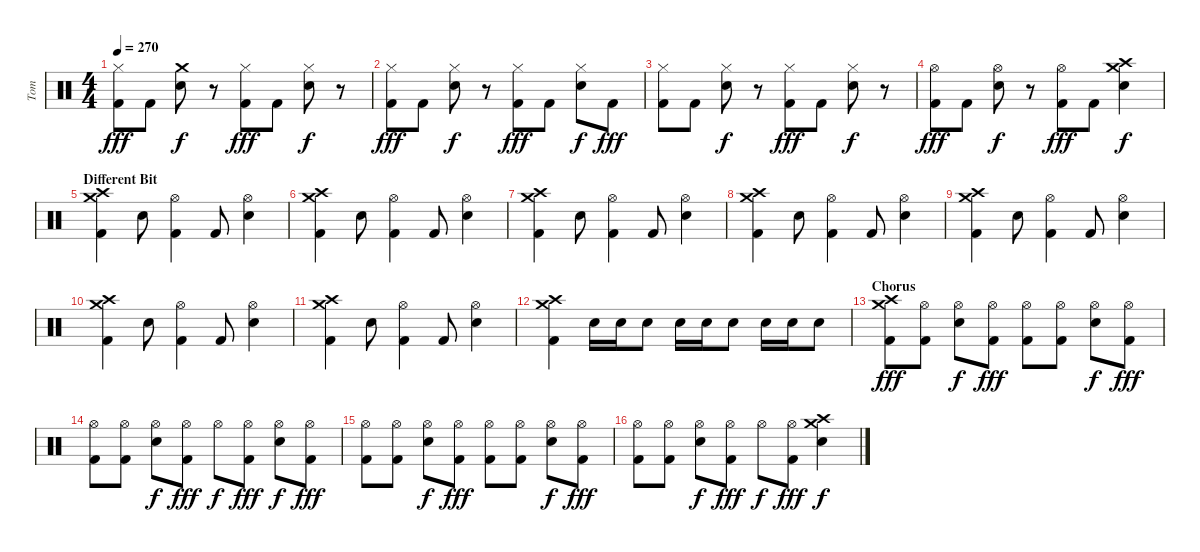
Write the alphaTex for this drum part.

\track ("Tom" "Tom") {instrument percussion}
\staff {score}
\articulation defaults
\ts (4 4)
\tempo 270
\clef neutral
\ks c
("Kick (hit) 2" "Hi-Hat (closed)").8{dy fff} "Kick (hit) 2".8 ("Crash medium (hit)" "Electric Snare (hit)").8{dy f} r.8 ("Kick (hit) 2" "Hi-Hat (closed)").8{dy fff} "Kick (hit) 2".8 ("Electric Snare (hit)" "Hi-Hat (closed)").8{dy f} r.8 |
("Kick (hit) 2" "Hi-Hat (closed)").8{dy fff} "Kick (hit) 2".8 ("Electric Snare (hit)" "Hi-Hat (closed)").8{dy f} r.8 ("Kick (hit) 2" "Hi-Hat (closed)").8{dy fff} "Kick (hit) 2".8 ("Electric Snare (hit)" "Hi-Hat (closed)").8{dy f} "Kick (hit) 2".8{dy fff} |
("Kick (hit) 2" "Hi-Hat (closed)").8 "Kick (hit) 2".8 ("Electric Snare (hit)" "Hi-Hat (closed)").8{dy f} r.8 ("Kick (hit) 2" "Hi-Hat (closed)").8{dy fff} "Kick (hit) 2".8 ("Electric Snare (hit)" "Hi-Hat (closed)").8{dy f} r.8 |
("Kick (hit) 2" "Hi-Hat (open)").8{dy fff} "Kick (hit) 2".8 ("Electric Snare (hit)" "Hi-Hat (open)").8{dy f} r.8 ("Kick (hit) 2" "Hi-Hat (open)").8{dy fff} "Kick (hit) 2".8 ("Electric Snare (hit)" "Crash medium (hit)" "Crash high (hit)").4{dy f} |
\section ("" "Different Bit")
("Kick (hit) 2" "Crash medium (hit)" "Crash high (hit)").4 "Electric Snare (hit)".8 ("Kick (hit) 2" "Hi-Hat (open)").4 "Kick (hit) 2".8 ("Electric Snare (hit)" "Hi-Hat (open)").4 |
("Kick (hit) 2" "Crash medium (hit)" "Crash high (hit)").4 "Electric Snare (hit)".8 ("Kick (hit) 2" "Hi-Hat (open)").4 "Kick (hit) 2".8 ("Electric Snare (hit)" "Hi-Hat (open)").4 |
("Kick (hit) 2" "Crash medium (hit)" "Crash high (hit)").4 "Electric Snare (hit)".8 ("Kick (hit) 2" "Hi-Hat (open)").4 "Kick (hit) 2".8 ("Electric Snare (hit)" "Hi-Hat (open)").4 |
("Kick (hit) 2" "Crash medium (hit)" "Crash high (hit)").4 "Electric Snare (hit)".8 ("Kick (hit) 2" "Hi-Hat (open)").4 "Kick (hit) 2".8 ("Electric Snare (hit)" "Hi-Hat (open)").4 |
("Kick (hit) 2" "Crash medium (hit)" "Crash high (hit)").4 "Electric Snare (hit)".8 ("Kick (hit) 2" "Hi-Hat (open)").4 "Kick (hit) 2".8 ("Electric Snare (hit)" "Hi-Hat (open)").4 |
("Kick (hit) 2" "Crash medium (hit)" "Crash high (hit)").4 "Electric Snare (hit)".8 ("Kick (hit) 2" "Hi-Hat (open)").4 "Kick (hit) 2".8 ("Electric Snare (hit)" "Hi-Hat (open)").4 |
("Kick (hit) 2" "Crash medium (hit)" "Crash high (hit)").4 "Electric Snare (hit)".8 ("Kick (hit) 2" "Hi-Hat (open)").4 "Kick (hit) 2".8 ("Electric Snare (hit)" "Hi-Hat (open)").4 |
("Kick (hit) 2" "Crash medium (hit)" "Crash high (hit)").4 "Electric Snare (hit)".16 "Electric Snare (hit)".16 "Electric Snare (hit)".8 "Electric Snare (hit)".16 "Electric Snare (hit)".16 "Electric Snare (hit)".8 "Electric Snare (hit)".16 "Electric Snare (hit)".16 "Electric Snare (hit)".8 |
\section ("" "Chorus")
("Kick (hit) 2" "Crash medium (hit)" "Crash high (hit)").8{dy fff} ("Kick (hit) 2" "Hi-Hat (open)").8 ("Electric Snare (hit)" "Hi-Hat (open)").8{dy f} ("Kick (hit) 2" "Hi-Hat (open)").8{dy fff} ("Kick (hit) 2" "Hi-Hat (open)").8 ("Kick (hit) 2" "Hi-Hat (open)").8 ("Electric Snare (hit)" "Hi-Hat (open)").8{dy f} ("Kick (hit) 2" "Hi-Hat (open)").8{dy fff} |
("Kick (hit) 2" "Hi-Hat (open)").8 ("Kick (hit) 2" "Hi-Hat (open)").8 ("Electric Snare (hit)" "Hi-Hat (open)").8{dy f} ("Kick (hit) 2" "Hi-Hat (open)").8{dy fff} "Hi-Hat (open)".8{dy f} ("Kick (hit) 2" "Hi-Hat (open)").8{dy fff} ("Electric Snare (hit)" "Hi-Hat (open)").8{dy f} ("Kick (hit) 2" "Hi-Hat (open)").8{dy fff} |
("Kick (hit) 2" "Hi-Hat (open)").8 ("Kick (hit) 2" "Hi-Hat (open)").8 ("Electric Snare (hit)" "Hi-Hat (open)").8{dy f} ("Kick (hit) 2" "Hi-Hat (open)").8{dy fff} ("Kick (hit) 2" "Hi-Hat (open)").8 ("Kick (hit) 2" "Hi-Hat (open)").8 ("Electric Snare (hit)" "Hi-Hat (open)").8{dy f} ("Kick (hit) 2" "Hi-Hat (open)").8{dy fff} |
("Kick (hit) 2" "Hi-Hat (open)").8 ("Kick (hit) 2" "Hi-Hat (open)").8 ("Electric Snare (hit)" "Hi-Hat (open)").8{dy f} ("Kick (hit) 2" "Hi-Hat (open)").8{dy fff} "Hi-Hat (open)".8{dy f} ("Kick (hit) 2" "Hi-Hat (open)").8{dy fff} ("Electric Snare (hit)" "Crash medium (hit)" "Crash high (hit)").4{dy f}
